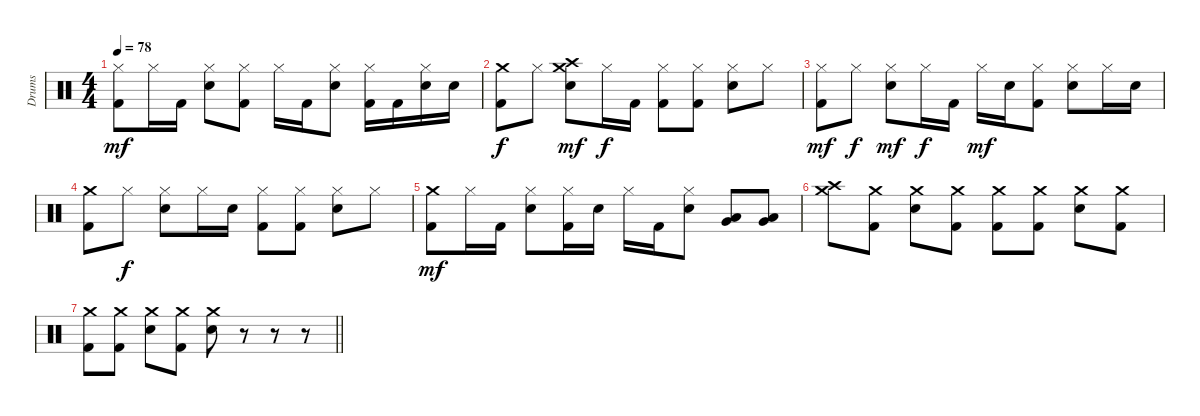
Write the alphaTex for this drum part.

\track ("Drums" "Drums") {instrument percussion}
\staff {score}
\articulation defaults
\ts (4 4)
\tempo 78
\clef neutral
\ks c
("Hi-Hat (closed)" "Kick (hit) 2").8{dy mf} "Hi-Hat (closed)".16 "Kick (hit) 2".16 ("Hi-Hat (closed)" "Electric Snare (hit)").8 ("Hi-Hat (closed)" "Kick (hit) 2").8 "Hi-Hat (closed)".16 "Kick (hit) 2".16 ("Hi-Hat (closed)" "Electric Snare (hit)").8 ("Hi-Hat (closed)" "Kick (hit) 2").16 "Kick (hit) 2".16 ("Hi-Hat (closed)" "Electric Snare (hit)").16 "Electric Snare (hit)".16 |
("Crash medium (hit)" "Kick (hit) 2").8{dy f} "Hi-Hat (closed)".8 ("Crash high (hit)" "Crash medium (hit)" "Electric Snare (hit)").8{dy mf} "Hi-Hat (closed)".16{dy f} "Kick (hit) 2".16 ("Hi-Hat (closed)" "Kick (hit) 2").8 ("Hi-Hat (closed)" "Kick (hit) 2").8 ("Hi-Hat (closed)" "Electric Snare (hit)").8 "Hi-Hat (closed)".8 |
("Hi-Hat (closed)" "Kick (hit) 2").8{dy mf} "Hi-Hat (closed)".8{dy f} ("Hi-Hat (closed)" "Electric Snare (hit)").8{dy mf} "Hi-Hat (closed)".16{dy f} "Kick (hit) 2".16 "Hi-Hat (closed)".16{dy mf} "Electric Snare (hit)".16 ("Hi-Hat (closed)" "Kick (hit) 2").8 ("Hi-Hat (closed)" "Electric Snare (hit)").8 "Hi-Hat (closed)".16 "Electric Snare (hit)".16 |
("Crash medium (hit)" "Kick (hit) 2").8 "Hi-Hat (closed)".8{dy f} ("Hi-Hat (closed)" "Electric Snare (hit)").8 "Hi-Hat (closed)".16 "Electric Snare (hit)".16 ("Hi-Hat (closed)" "Kick (hit) 2").8 ("Hi-Hat (closed)" "Kick (hit) 2").8 ("Hi-Hat (closed)" "Electric Snare (hit)").8 "Hi-Hat (closed)".8 |
("Crash medium (hit)" "Kick (hit) 2").8{dy mf} "Hi-Hat (closed)".16 "Kick (hit) 2".16 ("Hi-Hat (closed)" "Electric Snare (hit)").8 ("Hi-Hat (closed)" "Kick (hit) 2").16 "Electric Snare (hit)".16 "Hi-Hat (closed)".16 "Kick (hit) 2".16 ("Hi-Hat (closed)" "Electric Snare (hit)").8 ("Low Tom (hit)" "Very Low Tom (hit)").8 ("Low Tom (hit)" "Very Low Tom (hit)").8 |
("Crash medium (hit)" "Crash high (hit)").8 ("Crash medium (hit)" "Kick (hit) 2").8 ("Crash medium (hit)" "Electric Snare (hit)").8 ("Crash medium (hit)" "Kick (hit) 2").8 ("Crash medium (hit)" "Kick (hit) 2").8 ("Crash medium (hit)" "Kick (hit) 2").8 ("Crash medium (hit)" "Electric Snare (hit)").8 ("Crash medium (hit)" "Kick (hit) 2").8 |
\barLineRight lightlight
("Crash medium (hit)" "Kick (hit) 2").8 ("Crash medium (hit)" "Kick (hit) 2").8 ("Crash medium (hit)" "Electric Snare (hit)").8 ("Crash medium (hit)" "Kick (hit) 2").8 ("Crash medium (hit)" "Electric Snare (hit)").8 r.8 r.8 r.8
